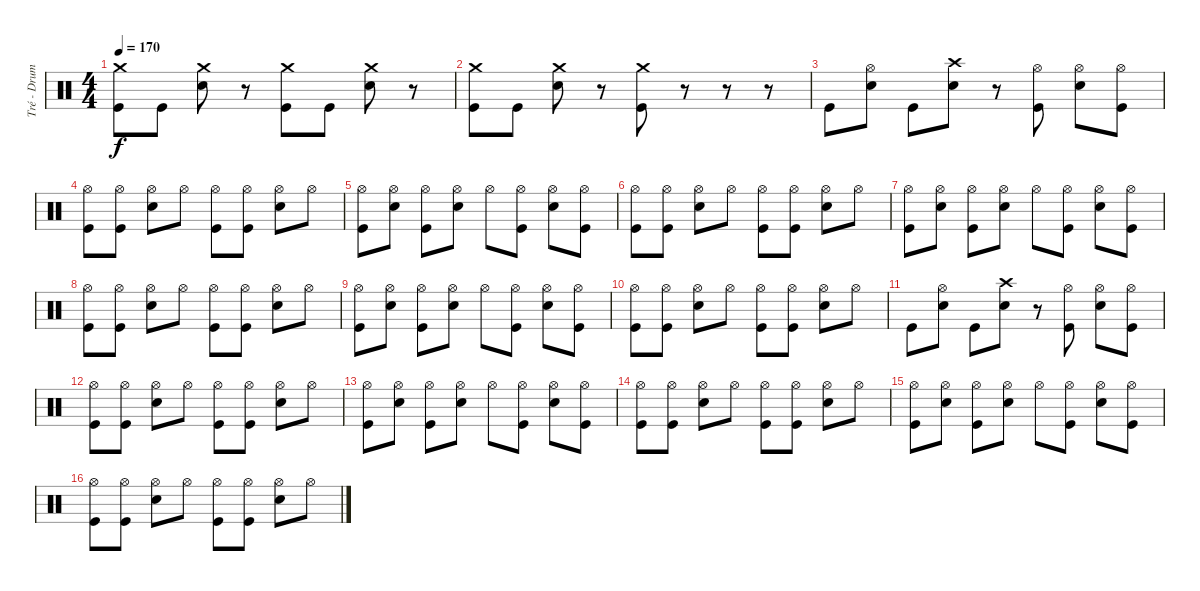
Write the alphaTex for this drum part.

\track ("Tré - Drums" "Tré - Drum") {instrument percussion}
\staff {score}
\articulation defaults
\ts (4 4)
\tempo 170
\clef neutral
\ks c
("Crash medium (hit)" "Kick (hit)").8{dy f} "Kick (hit)".8 ("Crash medium (hit)" "Electric Snare (hit)").8 r.8 ("Crash medium (hit)" "Kick (hit)").8 "Kick (hit)".8 ("Crash medium (hit)" "Electric Snare (hit)").8 r.8 |
("Crash medium (hit)" "Kick (hit)").8 "Kick (hit)".8 ("Crash medium (hit)" "Electric Snare (hit)").8 r.8 ("Crash medium (hit)" "Kick (hit)").8 r.8 r.8 r.8 |
"Kick (hit)".8 ("Hi-Hat (open)" "Electric Snare (hit)").8 "Kick (hit)".8 ("Crash high (hit)" "Electric Snare (hit)").8 r.8 ("Hi-Hat (open)" "Kick (hit)").8 ("Hi-Hat (open)" "Electric Snare (hit)").8 ("Hi-Hat (open)" "Kick (hit)").8 |
("Hi-Hat (open)" "Kick (hit)").8 ("Hi-Hat (open)" "Kick (hit)").8 ("Hi-Hat (open)" "Electric Snare (hit)").8 "Hi-Hat (open)".8 ("Hi-Hat (open)" "Kick (hit)").8 ("Hi-Hat (open)" "Kick (hit)").8 ("Hi-Hat (open)" "Electric Snare (hit)").8 "Hi-Hat (open)".8 |
("Hi-Hat (open)" "Kick (hit)").8 ("Hi-Hat (open)" "Electric Snare (hit)").8 ("Hi-Hat (open)" "Kick (hit)").8 ("Hi-Hat (open)" "Electric Snare (hit)").8 "Hi-Hat (open)".8 ("Hi-Hat (open)" "Kick (hit)").8 ("Hi-Hat (open)" "Electric Snare (hit)").8 ("Hi-Hat (open)" "Kick (hit)").8 |
("Hi-Hat (open)" "Kick (hit)").8 ("Hi-Hat (open)" "Kick (hit)").8 ("Hi-Hat (open)" "Electric Snare (hit)").8 "Hi-Hat (open)".8 ("Hi-Hat (open)" "Kick (hit)").8 ("Hi-Hat (open)" "Kick (hit)").8 ("Hi-Hat (open)" "Electric Snare (hit)").8 "Hi-Hat (open)".8 |
("Hi-Hat (open)" "Kick (hit)").8 ("Hi-Hat (open)" "Electric Snare (hit)").8 ("Hi-Hat (open)" "Kick (hit)").8 ("Hi-Hat (open)" "Electric Snare (hit)").8 "Hi-Hat (open)".8 ("Hi-Hat (open)" "Kick (hit)").8 ("Hi-Hat (open)" "Electric Snare (hit)").8 ("Hi-Hat (open)" "Kick (hit)").8 |
("Hi-Hat (open)" "Kick (hit)").8 ("Hi-Hat (open)" "Kick (hit)").8 ("Hi-Hat (open)" "Electric Snare (hit)").8 "Hi-Hat (open)".8 ("Hi-Hat (open)" "Kick (hit)").8 ("Hi-Hat (open)" "Kick (hit)").8 ("Hi-Hat (open)" "Electric Snare (hit)").8 "Hi-Hat (open)".8 |
("Hi-Hat (open)" "Kick (hit)").8 ("Hi-Hat (open)" "Electric Snare (hit)").8 ("Hi-Hat (open)" "Kick (hit)").8 ("Hi-Hat (open)" "Electric Snare (hit)").8 "Hi-Hat (open)".8 ("Hi-Hat (open)" "Kick (hit)").8 ("Hi-Hat (open)" "Electric Snare (hit)").8 ("Hi-Hat (open)" "Kick (hit)").8 |
("Hi-Hat (open)" "Kick (hit)").8 ("Hi-Hat (open)" "Kick (hit)").8 ("Hi-Hat (open)" "Electric Snare (hit)").8 "Hi-Hat (open)".8 ("Hi-Hat (open)" "Kick (hit)").8 ("Hi-Hat (open)" "Kick (hit)").8 ("Hi-Hat (open)" "Electric Snare (hit)").8 "Hi-Hat (open)".8 |
"Kick (hit)".8 ("Hi-Hat (open)" "Electric Snare (hit)").8 "Kick (hit)".8 ("Crash high (hit)" "Electric Snare (hit)").8 r.8 ("Hi-Hat (open)" "Kick (hit)").8 ("Hi-Hat (open)" "Electric Snare (hit)").8 ("Hi-Hat (open)" "Kick (hit)").8 |
("Hi-Hat (open)" "Kick (hit)").8 ("Hi-Hat (open)" "Kick (hit)").8 ("Hi-Hat (open)" "Electric Snare (hit)").8 "Hi-Hat (open)".8 ("Hi-Hat (open)" "Kick (hit)").8 ("Hi-Hat (open)" "Kick (hit)").8 ("Hi-Hat (open)" "Electric Snare (hit)").8 "Hi-Hat (open)".8 |
("Hi-Hat (open)" "Kick (hit)").8 ("Hi-Hat (open)" "Electric Snare (hit)").8 ("Hi-Hat (open)" "Kick (hit)").8 ("Hi-Hat (open)" "Electric Snare (hit)").8 "Hi-Hat (open)".8 ("Hi-Hat (open)" "Kick (hit)").8 ("Hi-Hat (open)" "Electric Snare (hit)").8 ("Hi-Hat (open)" "Kick (hit)").8 |
("Hi-Hat (open)" "Kick (hit)").8 ("Hi-Hat (open)" "Kick (hit)").8 ("Hi-Hat (open)" "Electric Snare (hit)").8 "Hi-Hat (open)".8 ("Hi-Hat (open)" "Kick (hit)").8 ("Hi-Hat (open)" "Kick (hit)").8 ("Hi-Hat (open)" "Electric Snare (hit)").8 "Hi-Hat (open)".8 |
("Hi-Hat (open)" "Kick (hit)").8 ("Hi-Hat (open)" "Electric Snare (hit)").8 ("Hi-Hat (open)" "Kick (hit)").8 ("Hi-Hat (open)" "Electric Snare (hit)").8 "Hi-Hat (open)".8 ("Hi-Hat (open)" "Kick (hit)").8 ("Hi-Hat (open)" "Electric Snare (hit)").8 ("Hi-Hat (open)" "Kick (hit)").8 |
("Hi-Hat (open)" "Kick (hit)").8 ("Hi-Hat (open)" "Kick (hit)").8 ("Hi-Hat (open)" "Electric Snare (hit)").8 "Hi-Hat (open)".8 ("Hi-Hat (open)" "Kick (hit)").8 ("Hi-Hat (open)" "Kick (hit)").8 ("Hi-Hat (open)" "Electric Snare (hit)").8 "Hi-Hat (open)".8
